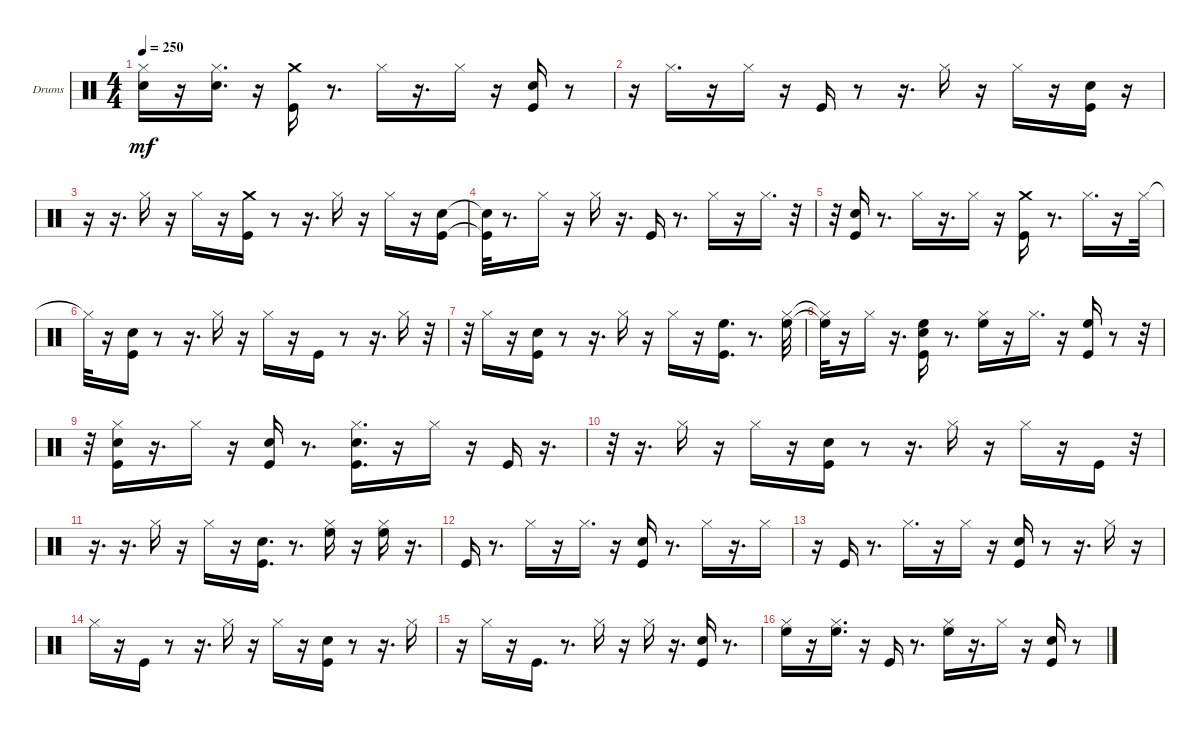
\bracketExtendMode groupsimilarinstruments
\firstSystemTrackNameOrientation horizontal
\otherSystemsTrackNameOrientation horizontal
\track ("Drums" "Drums") {instrument percussion}
\staff {score}
\articulation defaults
\ts (4 4)
\tempo 250
\clef neutral
\ks c
("Hi-Hat (closed)" "Snare (hit) 2").16{dy mf} r.16 ("Hi-Hat (closed)" "Snare (hit) 2").16{d} r.16 ("Kick (hit)" "Crash medium (hit)").16 r.8{d} "Hi-Hat (closed)".16 r.16{d} "Hi-Hat (closed)".16 r.16 ("Kick (hit)" "Snare (hit) 2").16 r.8 |
r.16 "Hi-Hat (closed)".16{d} r.16 "Hi-Hat (closed)".16 r.16 "Kick (hit)".16 r.8 r.16{d} "Hi-Hat (closed)".16 r.16 "Hi-Hat (closed)".16 r.16 ("Kick (hit)" "Snare (hit) 2").16 r.16 |
r.16 r.16{d} "Hi-Hat (closed)".16 r.16 "Hi-Hat (closed)".16 r.16 ("Kick (hit)" "Crash medium (hit)").16 r.8 r.16{d} "Hi-Hat (closed)".16 r.16 "Hi-Hat (closed)".16 r.16 ("Kick (hit)" "Snare (hit) 2").16 |
("Kick (hit)"{t} "Snare (hit) 2"{t}).32 r.8{d} "Hi-Hat (closed)".16 r.16 "Hi-Hat (closed)".16 r.16{d} "Kick (hit)".16 r.8{d} "Hi-Hat (closed)".16 r.16 "Hi-Hat (closed)".16{d} r.32 |
r.32 ("Kick (hit)" "Snare (hit) 2").16 r.8{d} "Hi-Hat (closed)".16 r.16{d} "Hi-Hat (closed)".16 r.16 ("Kick (hit)" "Crash medium (hit)").16 r.8{d} "Hi-Hat (closed)".16{d} r.16 "Hi-Hat (closed)".32 |
"Hi-Hat (closed)"{t}.32 r.16 ("Kick (hit)" "Snare (hit) 2").16 r.8 r.16{d} "Hi-Hat (closed)".16 r.16 "Hi-Hat (closed)".16 r.16 "Kick (hit)".16 r.8 r.16{d} "Hi-Hat (closed)".16 r.32 |
r.32 "Hi-Hat (closed)".16 r.16 ("Kick (hit)" "Snare (hit) 2").16 r.8 r.16{d} "Hi-Hat (closed)".16 r.16 "Hi-Hat (closed)".16 r.16 ("High Floor Tom (hit)" "Kick (hit)").16{d} r.8{d} ("High Floor Tom (hit)" "Hi-Hat (closed)").32 |
("High Floor Tom (hit)"{t} "Hi-Hat (closed)"{t}).32 r.16 "Hi-Hat (closed)".16 r.16{d} ("High Floor Tom (hit)" "Kick (hit)" "Snare (hit) 2").16 r.8{d} ("High Floor Tom (hit)" "Hi-Hat (closed)").16 r.16 "Hi-Hat (closed)".16{d} r.16 ("High Floor Tom (hit)" "Kick (hit)").16 r.8 r.32 |
r.32 ("Hi-Hat (closed)" "Kick (hit)" "Snare (hit) 2").16 r.16{d} "Hi-Hat (closed)".16 r.16 ("Kick (hit)" "Snare (hit) 2").16 r.8{d} ("Hi-Hat (closed)" "Kick (hit)" "Snare (hit) 2").16{d} r.16 "Hi-Hat (closed)".16 r.16 "Kick (hit)".16 r.16{d} |
r.32 r.16{d} "Hi-Hat (closed)".16 r.16 "Hi-Hat (closed)".16 r.16 ("Kick (hit)" "Snare (hit) 2").16 r.8 r.16{d} "Hi-Hat (closed)".16 r.16 "Hi-Hat (closed)".16 r.16 "Kick (hit)".16 r.32 |
r.16{d} r.16{d} "Hi-Hat (closed)".16 r.16 "Hi-Hat (closed)".16 r.16 ("Kick (hit)" "Snare (hit) 2").16{d} r.8{d} ("High Floor Tom (hit)" "Hi-Hat (closed)").16 r.16 ("High Floor Tom (hit)" "Hi-Hat (closed)").16 r.16{d} |
"Kick (hit)".16 r.8{d} "Hi-Hat (closed)".16 r.16 "Hi-Hat (closed)".16{d} r.16 ("Kick (hit)" "Snare (hit) 2").16 r.8{d} "Hi-Hat (closed)".16 r.16{d} "Hi-Hat (closed)".16 |
r.16 "Kick (hit)".16 r.8{d} "Hi-Hat (closed)".16{d} r.16 "Hi-Hat (closed)".16 r.16 ("Kick (hit)" "Snare (hit) 2").16 r.8 r.16{d} "Hi-Hat (closed)".16 r.16 |
"Hi-Hat (closed)".16 r.16 "Kick (hit)".16 r.8 r.16{d} "Hi-Hat (closed)".16 r.16 "Hi-Hat (closed)".16 r.16 ("Kick (hit)" "Snare (hit) 2").16 r.8 r.16{d} "Hi-Hat (closed)".16 |
r.16 "Hi-Hat (closed)".16 r.16 "Kick (hit)".16{d} r.8{d} "Hi-Hat (closed)".16 r.16 "Hi-Hat (closed)".16 r.16{d} ("Kick (hit)" "Snare (hit) 2").16 r.8{d} |
("High Floor Tom (hit)" "Hi-Hat (closed)").16 r.16 ("High Floor Tom (hit)" "Hi-Hat (closed)").16{d} r.16 "Kick (hit)".16 r.8{d} ("High Floor Tom (hit)" "Hi-Hat (closed)").16 r.16{d} "Hi-Hat (closed)".16 r.16 ("Kick (hit)" "Snare (hit) 2").16 r.8
